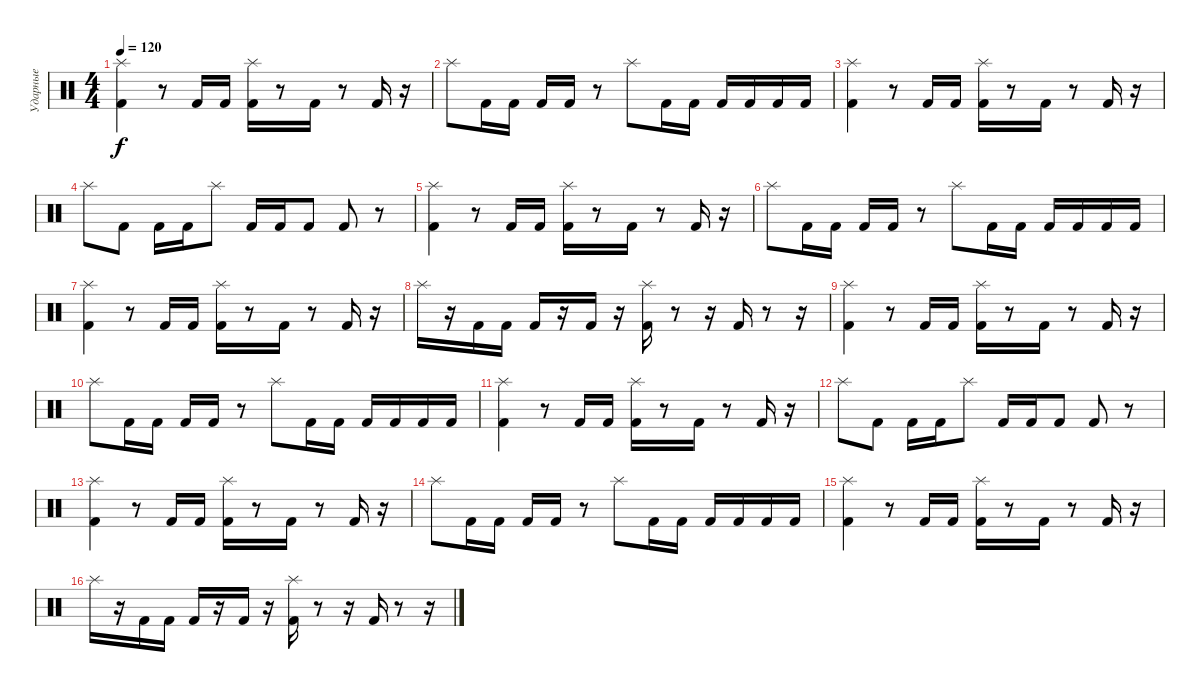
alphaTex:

\track ("Ударные" "Ударные") {instrument percussion}
\staff {score}
\articulation defaults
\ts (4 4)
\tempo 120
\clef neutral
\ks c
("Splash (hit)" "Kick (hit) 2").4{dy f} r.8 "Kick (hit) 2".16 "Kick (hit) 2".16 ("Splash (hit)" "Kick (hit) 2").16 r.8 "Kick (hit) 2".16 r.8 "Kick (hit) 2".16 r.16 |
"Splash (hit)".8 "Kick (hit) 2".16 "Kick (hit) 2".16 "Kick (hit) 2".16 "Kick (hit) 2".16 r.8 "Splash (hit)".8 "Kick (hit) 2".16 "Kick (hit) 2".16 "Kick (hit) 2".16 "Kick (hit) 2".16 "Kick (hit) 2".16 "Kick (hit) 2".16 |
("Splash (hit)" "Kick (hit) 2").4 r.8 "Kick (hit) 2".16 "Kick (hit) 2".16 ("Splash (hit)" "Kick (hit) 2").16 r.8 "Kick (hit) 2".16 r.8 "Kick (hit) 2".16 r.16 |
"Splash (hit)".8 "Kick (hit) 2".8 "Kick (hit) 2".16 "Kick (hit) 2".16 "Splash (hit)".8 "Kick (hit) 2".16 "Kick (hit) 2".16 "Kick (hit) 2".8 "Kick (hit) 2".8 r.8 |
("Splash (hit)" "Kick (hit) 2").4 r.8 "Kick (hit) 2".16 "Kick (hit) 2".16 ("Splash (hit)" "Kick (hit) 2").16 r.8 "Kick (hit) 2".16 r.8 "Kick (hit) 2".16 r.16 |
"Splash (hit)".8 "Kick (hit) 2".16 "Kick (hit) 2".16 "Kick (hit) 2".16 "Kick (hit) 2".16 r.8 "Splash (hit)".8 "Kick (hit) 2".16 "Kick (hit) 2".16 "Kick (hit) 2".16 "Kick (hit) 2".16 "Kick (hit) 2".16 "Kick (hit) 2".16 |
("Splash (hit)" "Kick (hit) 2").4 r.8 "Kick (hit) 2".16 "Kick (hit) 2".16 ("Splash (hit)" "Kick (hit) 2").16 r.8 "Kick (hit) 2".16 r.8 "Kick (hit) 2".16 r.16 |
"Splash (hit)".16 r.16 "Kick (hit) 2".16 "Kick (hit) 2".16 "Kick (hit) 2".16 r.16 "Kick (hit) 2".16 r.16 ("Splash (hit)" "Kick (hit) 2").16 r.8 r.16 "Kick (hit) 2".16 r.8 r.16 |
("Splash (hit)" "Kick (hit) 2").4 r.8 "Kick (hit) 2".16 "Kick (hit) 2".16 ("Splash (hit)" "Kick (hit) 2").16 r.8 "Kick (hit) 2".16 r.8 "Kick (hit) 2".16 r.16 |
"Splash (hit)".8 "Kick (hit) 2".16 "Kick (hit) 2".16 "Kick (hit) 2".16 "Kick (hit) 2".16 r.8 "Splash (hit)".8 "Kick (hit) 2".16 "Kick (hit) 2".16 "Kick (hit) 2".16 "Kick (hit) 2".16 "Kick (hit) 2".16 "Kick (hit) 2".16 |
("Splash (hit)" "Kick (hit) 2").4 r.8 "Kick (hit) 2".16 "Kick (hit) 2".16 ("Splash (hit)" "Kick (hit) 2").16 r.8 "Kick (hit) 2".16 r.8 "Kick (hit) 2".16 r.16 |
"Splash (hit)".8 "Kick (hit) 2".8 "Kick (hit) 2".16 "Kick (hit) 2".16 "Splash (hit)".8 "Kick (hit) 2".16 "Kick (hit) 2".16 "Kick (hit) 2".8 "Kick (hit) 2".8 r.8 |
("Splash (hit)" "Kick (hit) 2").4 r.8 "Kick (hit) 2".16 "Kick (hit) 2".16 ("Splash (hit)" "Kick (hit) 2").16 r.8 "Kick (hit) 2".16 r.8 "Kick (hit) 2".16 r.16 |
"Splash (hit)".8 "Kick (hit) 2".16 "Kick (hit) 2".16 "Kick (hit) 2".16 "Kick (hit) 2".16 r.8 "Splash (hit)".8 "Kick (hit) 2".16 "Kick (hit) 2".16 "Kick (hit) 2".16 "Kick (hit) 2".16 "Kick (hit) 2".16 "Kick (hit) 2".16 |
("Splash (hit)" "Kick (hit) 2").4 r.8 "Kick (hit) 2".16 "Kick (hit) 2".16 ("Splash (hit)" "Kick (hit) 2").16 r.8 "Kick (hit) 2".16 r.8 "Kick (hit) 2".16 r.16 |
"Splash (hit)".16 r.16 "Kick (hit) 2".16 "Kick (hit) 2".16 "Kick (hit) 2".16 r.16 "Kick (hit) 2".16 r.16 ("Splash (hit)" "Kick (hit) 2").16 r.8 r.16 "Kick (hit) 2".16 r.8 r.16
